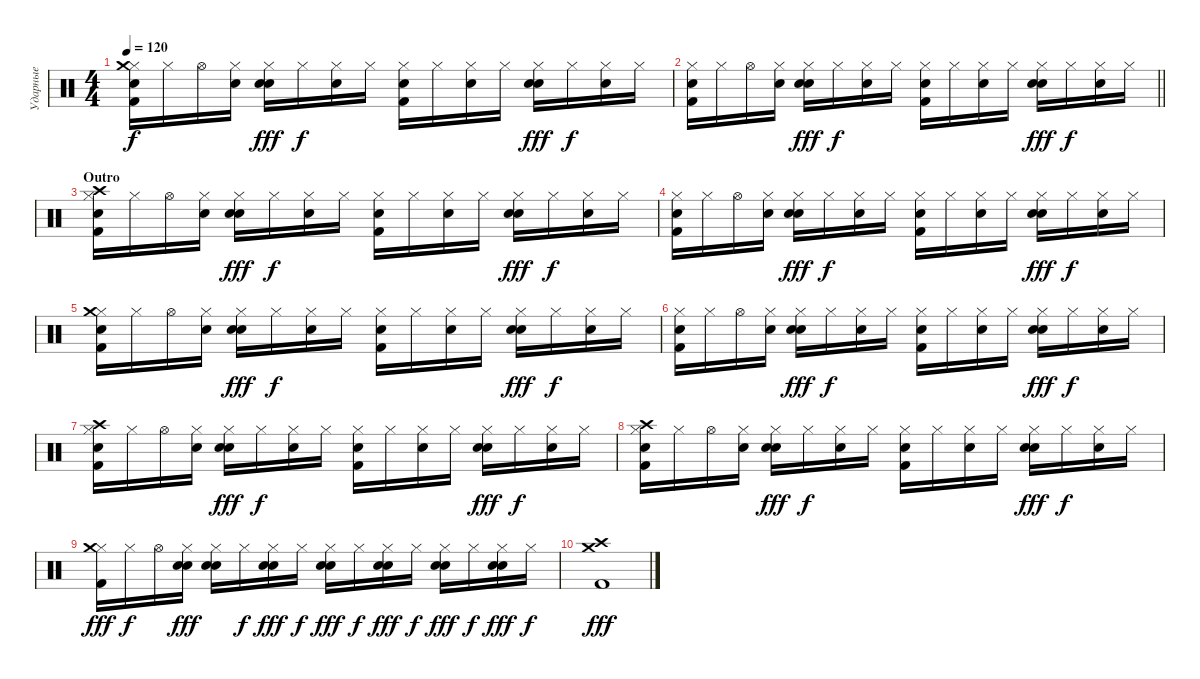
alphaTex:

\track ("Ударные" "Ударные") {instrument percussion}
\staff {score}
\articulation defaults
\ts (4 4)
\tempo 120
\clef neutral
\ks c
("Hi-Hat (closed)" "Snare (hit) 2" "Kick (hit) 2" "Crash medium (hit)").16{dy f} "Hi-Hat (closed)".16 "Hi-Hat (open)".16 ("Hi-Hat (closed)" "Snare (hit) 2").16 ("Hi-Hat (closed)" "Electric Snare (hit)" "Snare (hit) 2").16{dy fff} "Hi-Hat (closed)".16{dy f} ("Hi-Hat (closed)" "Snare (hit) 2").16 "Hi-Hat (closed)".16 ("Hi-Hat (closed)" "Snare (hit) 2" "Kick (hit) 2").16 "Hi-Hat (closed)".16 ("Hi-Hat (closed)" "Snare (hit) 2").16 "Hi-Hat (closed)".16 ("Hi-Hat (closed)" "Electric Snare (hit)" "Snare (hit) 2").16{dy fff} "Hi-Hat (closed)".16{dy f} ("Hi-Hat (closed)" "Snare (hit) 2").16 "Hi-Hat (closed)".16 |
\barLineRight lightlight
("Hi-Hat (closed)" "Snare (hit) 2" "Kick (hit) 2").16 "Hi-Hat (closed)".16 "Hi-Hat (open)".16 ("Hi-Hat (closed)" "Snare (hit) 2").16 ("Hi-Hat (closed)" "Electric Snare (hit)" "Snare (hit) 2").16{dy fff} "Hi-Hat (closed)".16{dy f} ("Hi-Hat (closed)" "Snare (hit) 2").16 "Hi-Hat (closed)".16 ("Hi-Hat (closed)" "Snare (hit) 2" "Kick (hit) 2").16 "Hi-Hat (closed)".16 ("Hi-Hat (closed)" "Snare (hit) 2").16 "Hi-Hat (closed)".16 ("Hi-Hat (closed)" "Electric Snare (hit)" "Snare (hit) 2").16{dy fff} "Hi-Hat (closed)".16{dy f} ("Hi-Hat (closed)" "Snare (hit) 2").16 "Hi-Hat (closed)".16 |
\section ("" "Outro")
("Hi-Hat (closed)" "Snare (hit) 2" "Kick (hit) 2" "Crash high (hit)").16 "Hi-Hat (closed)".16 "Hi-Hat (open)".16 ("Hi-Hat (closed)" "Snare (hit) 2").16 ("Hi-Hat (closed)" "Electric Snare (hit)" "Snare (hit) 2").16{dy fff} "Hi-Hat (closed)".16{dy f} ("Hi-Hat (closed)" "Snare (hit) 2").16 "Hi-Hat (closed)".16 ("Hi-Hat (closed)" "Snare (hit) 2" "Kick (hit) 2").16 "Hi-Hat (closed)".16 ("Hi-Hat (closed)" "Snare (hit) 2").16 "Hi-Hat (closed)".16 ("Hi-Hat (closed)" "Electric Snare (hit)" "Snare (hit) 2").16{dy fff} "Hi-Hat (closed)".16{dy f} ("Hi-Hat (closed)" "Snare (hit) 2").16 "Hi-Hat (closed)".16 |
("Hi-Hat (closed)" "Snare (hit) 2" "Kick (hit) 2").16 "Hi-Hat (closed)".16 "Hi-Hat (open)".16 ("Hi-Hat (closed)" "Snare (hit) 2").16 ("Hi-Hat (closed)" "Electric Snare (hit)" "Snare (hit) 2").16{dy fff} "Hi-Hat (closed)".16{dy f} ("Hi-Hat (closed)" "Snare (hit) 2").16 "Hi-Hat (closed)".16 ("Hi-Hat (closed)" "Snare (hit) 2" "Kick (hit) 2").16 "Hi-Hat (closed)".16 ("Hi-Hat (closed)" "Snare (hit) 2").16 "Hi-Hat (closed)".16 ("Hi-Hat (closed)" "Electric Snare (hit)" "Snare (hit) 2").16{dy fff} "Hi-Hat (closed)".16{dy f} ("Hi-Hat (closed)" "Snare (hit) 2").16 "Hi-Hat (closed)".16 |
("Hi-Hat (closed)" "Snare (hit) 2" "Kick (hit) 2" "Crash medium (hit)").16 "Hi-Hat (closed)".16 "Hi-Hat (open)".16 ("Hi-Hat (closed)" "Snare (hit) 2").16 ("Hi-Hat (closed)" "Electric Snare (hit)" "Snare (hit) 2").16{dy fff} "Hi-Hat (closed)".16{dy f} ("Hi-Hat (closed)" "Snare (hit) 2").16 "Hi-Hat (closed)".16 ("Hi-Hat (closed)" "Snare (hit) 2" "Kick (hit) 2").16 "Hi-Hat (closed)".16 ("Hi-Hat (closed)" "Snare (hit) 2").16 "Hi-Hat (closed)".16 ("Hi-Hat (closed)" "Electric Snare (hit)" "Snare (hit) 2").16{dy fff} "Hi-Hat (closed)".16{dy f} ("Hi-Hat (closed)" "Snare (hit) 2").16 "Hi-Hat (closed)".16 |
("Hi-Hat (closed)" "Snare (hit) 2" "Kick (hit) 2").16 "Hi-Hat (closed)".16 "Hi-Hat (open)".16 ("Hi-Hat (closed)" "Snare (hit) 2").16 ("Hi-Hat (closed)" "Electric Snare (hit)" "Snare (hit) 2").16{dy fff} "Hi-Hat (closed)".16{dy f} ("Hi-Hat (closed)" "Snare (hit) 2").16 "Hi-Hat (closed)".16 ("Hi-Hat (closed)" "Snare (hit) 2" "Kick (hit) 2").16 "Hi-Hat (closed)".16 ("Hi-Hat (closed)" "Snare (hit) 2").16 "Hi-Hat (closed)".16 ("Hi-Hat (closed)" "Electric Snare (hit)" "Snare (hit) 2").16{dy fff} "Hi-Hat (closed)".16{dy f} ("Hi-Hat (closed)" "Snare (hit) 2").16 "Hi-Hat (closed)".16 |
("Hi-Hat (closed)" "Snare (hit) 2" "Kick (hit) 2" "Crash high (hit)").16 "Hi-Hat (closed)".16 "Hi-Hat (open)".16 ("Hi-Hat (closed)" "Snare (hit) 2").16 ("Hi-Hat (closed)" "Electric Snare (hit)" "Snare (hit) 2").16{dy fff} "Hi-Hat (closed)".16{dy f} ("Hi-Hat (closed)" "Snare (hit) 2").16 "Hi-Hat (closed)".16 ("Hi-Hat (closed)" "Snare (hit) 2" "Kick (hit) 2").16 "Hi-Hat (closed)".16 ("Hi-Hat (closed)" "Snare (hit) 2").16 "Hi-Hat (closed)".16 ("Hi-Hat (closed)" "Electric Snare (hit)" "Snare (hit) 2").16{dy fff} "Hi-Hat (closed)".16{dy f} ("Hi-Hat (closed)" "Snare (hit) 2").16 "Hi-Hat (closed)".16 |
("Hi-Hat (closed)" "Snare (hit) 2" "Kick (hit) 2" "Crash high (hit)").16 "Hi-Hat (closed)".16 "Hi-Hat (open)".16 ("Hi-Hat (closed)" "Snare (hit) 2").16 ("Hi-Hat (closed)" "Electric Snare (hit)" "Snare (hit) 2").16{dy fff} "Hi-Hat (closed)".16{dy f} ("Hi-Hat (closed)" "Snare (hit) 2").16 "Hi-Hat (closed)".16 ("Hi-Hat (closed)" "Snare (hit) 2" "Kick (hit) 2").16 "Hi-Hat (closed)".16 ("Hi-Hat (closed)" "Snare (hit) 2").16 "Hi-Hat (closed)".16 ("Hi-Hat (closed)" "Electric Snare (hit)" "Snare (hit) 2").16{dy fff} "Hi-Hat (closed)".16{dy f} ("Hi-Hat (closed)" "Snare (hit) 2").16 "Hi-Hat (closed)".16 |
("Hi-Hat (closed)" "Kick (hit) 2" "Crash medium (hit)").16{dy fff} "Hi-Hat (closed)".16{dy f} "Hi-Hat (open)".16 ("Hi-Hat (closed)" "Electric Snare (hit)" "Snare (hit) 2").16{dy fff} ("Hi-Hat (closed)" "Electric Snare (hit)" "Snare (hit) 2").16 "Hi-Hat (closed)".16{dy f} ("Hi-Hat (closed)" "Electric Snare (hit)" "Snare (hit) 2").16{dy fff} "Hi-Hat (closed)".16{dy f} ("Hi-Hat (closed)" "Electric Snare (hit)" "Snare (hit) 2").16{dy fff} "Hi-Hat (closed)".16{dy f} ("Hi-Hat (closed)" "Electric Snare (hit)" "Snare (hit) 2").16{dy fff} "Hi-Hat (closed)".16{dy f} ("Hi-Hat (closed)" "Electric Snare (hit)" "Snare (hit) 2").16{dy fff} "Hi-Hat (closed)".16{dy f} ("Hi-Hat (closed)" "Electric Snare (hit)" "Snare (hit) 2").16{dy fff} "Hi-Hat (closed)".16{dy f} |
("Crash medium (hit)" "Crash high (hit)" "Kick (hit) 2").1{dy fff}
